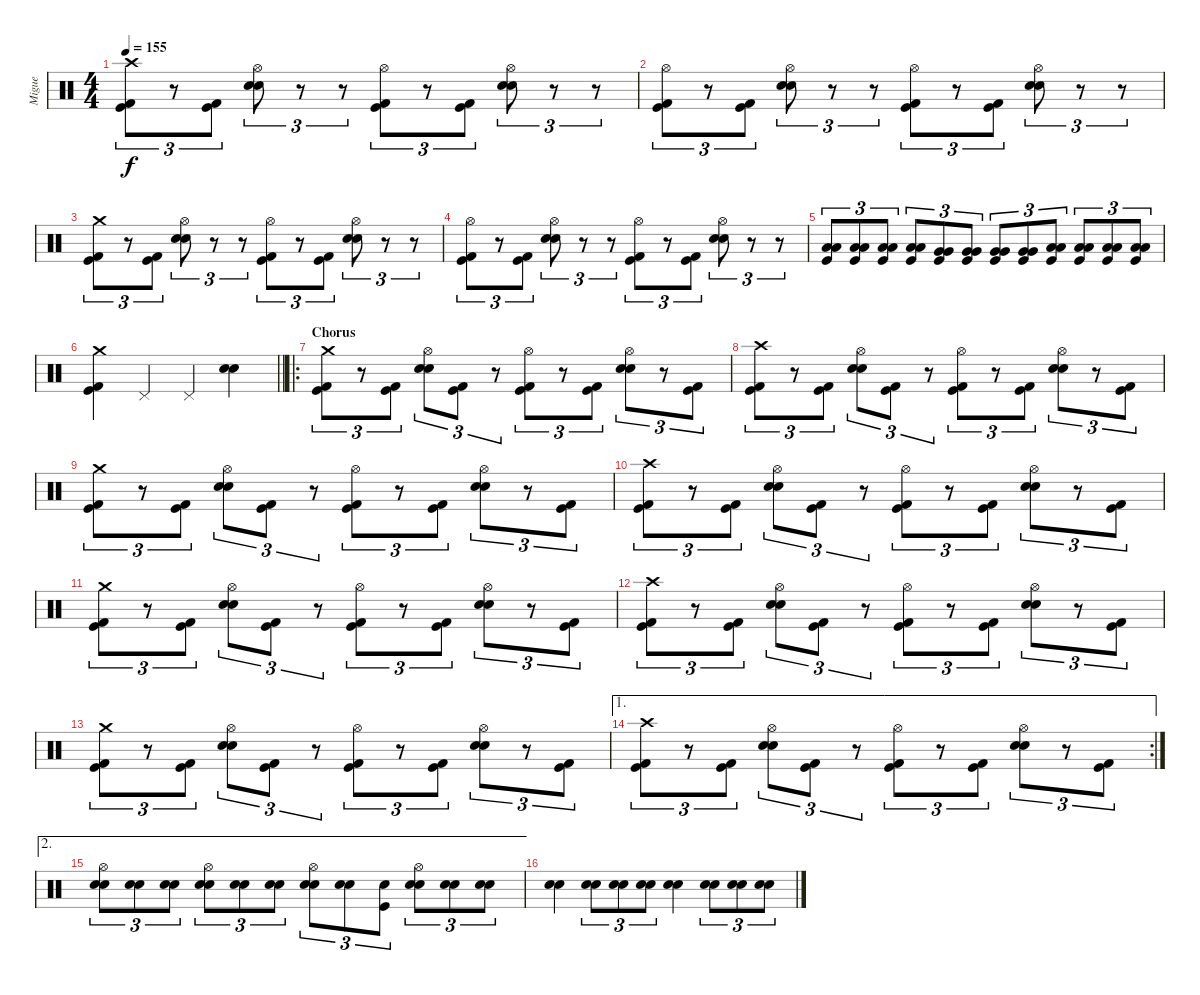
\track ("Migue" "Migue") {instrument percussion}
\staff {score}
\articulation defaults
\ts (4 4)
\tempo 155
\clef neutral
\ks c
("Crash high (hit)" "Kick (hit) 2" "Kick (hit)").8{tu (3 2) dy f} r.8{tu (3 2)} ("Kick (hit) 2" "Kick (hit)").8{tu (3 2)} ("Hi-Hat (open)" "Snare (hit) 2" "Snare (hit) 2").8{tu (3 2)} r.8{tu (3 2)} r.8{tu (3 2)} ("Hi-Hat (open)" "Kick (hit) 2" "Kick (hit)").8{tu (3 2)} r.8{tu (3 2)} ("Kick (hit) 2" "Kick (hit)").8{tu (3 2)} ("Hi-Hat (open)" "Snare (hit) 2" "Snare (hit) 2").8{tu (3 2)} r.8{tu (3 2)} r.8{tu (3 2)} |
("Hi-Hat (open)" "Kick (hit) 2" "Kick (hit)").8{tu (3 2)} r.8{tu (3 2)} ("Kick (hit) 2" "Kick (hit)").8{tu (3 2)} ("Hi-Hat (open)" "Snare (hit) 2" "Snare (hit) 2").8{tu (3 2)} r.8{tu (3 2)} r.8{tu (3 2)} ("Hi-Hat (open)" "Kick (hit) 2" "Kick (hit)").8{tu (3 2)} r.8{tu (3 2)} ("Kick (hit) 2" "Kick (hit)").8{tu (3 2)} ("Hi-Hat (open)" "Snare (hit) 2" "Snare (hit) 2").8{tu (3 2)} r.8{tu (3 2)} r.8{tu (3 2)} |
("Crash medium (hit)" "Kick (hit) 2" "Kick (hit)").8{tu (3 2)} r.8{tu (3 2)} ("Kick (hit) 2" "Kick (hit)").8{tu (3 2)} ("Hi-Hat (open)" "Snare (hit) 2" "Snare (hit) 2").8{tu (3 2)} r.8{tu (3 2)} r.8{tu (3 2)} ("Hi-Hat (open)" "Kick (hit) 2" "Kick (hit)").8{tu (3 2)} r.8{tu (3 2)} ("Kick (hit) 2" "Kick (hit)").8{tu (3 2)} ("Hi-Hat (open)" "Snare (hit) 2" "Snare (hit) 2").8{tu (3 2)} r.8{tu (3 2)} r.8{tu (3 2)} |
("Hi-Hat (open)" "Kick (hit) 2" "Kick (hit)").8{tu (3 2)} r.8{tu (3 2)} ("Kick (hit) 2" "Kick (hit)").8{tu (3 2)} ("Hi-Hat (open)" "Snare (hit) 2" "Snare (hit) 2").8{tu (3 2)} r.8{tu (3 2)} r.8{tu (3 2)} ("Hi-Hat (open)" "Kick (hit) 2" "Kick (hit)").8{tu (3 2)} r.8{tu (3 2)} ("Kick (hit) 2" "Kick (hit)").8{tu (3 2)} ("Hi-Hat (open)" "Snare (hit) 2" "Snare (hit) 2").8{tu (3 2)} r.8{tu (3 2)} r.8{tu (3 2)} |
("Low Tom (hit)" "Low Tom (hit)" "Kick (hit)").8{tu (3 2)} ("Low Tom (hit)" "Low Tom (hit)" "Kick (hit)").8{tu (3 2)} ("Low Tom (hit)" "Low Tom (hit)" "Kick (hit)").8{tu (3 2)} ("Low Tom (hit)" "Low Tom (hit)" "Kick (hit)").8{tu (3 2)} ("Very Low Tom (hit)" "Very Low Tom (hit)" "Kick (hit)").8{tu (3 2)} ("Very Low Tom (hit)" "Very Low Tom (hit)" "Kick (hit)").8{tu (3 2)} ("Very Low Tom (hit)" "Very Low Tom (hit)" "Kick (hit)").8{tu (3 2)} ("Very Low Tom (hit)" "Very Low Tom (hit)" "Kick (hit)").8{tu (3 2)} ("Low Floor Tom (hit)" "Low Floor Tom (hit)" "Kick (hit)").8{tu (3 2)} ("Low Floor Tom (hit)" "Low Floor Tom (hit)" "Kick (hit)").8{tu (3 2)} ("Low Floor Tom (hit)" "Low Floor Tom (hit)" "Kick (hit)").8{tu (3 2)} ("Low Floor Tom (hit)" "Low Floor Tom (hit)" "Kick (hit)").8{tu (3 2)} |
\barLineRight lightlight
("Crash medium (hit)" "Kick (hit) 2" "Kick (hit)").4 "Pedal Hi-Hat (hit)".4 "Pedal Hi-Hat (hit)".4 ("Snare (hit) 2" "Snare (hit) 2").4 |
\ro
\section ("" "Chorus")
("Crash medium (hit)" "Kick (hit) 2" "Kick (hit)").8{tu (3 2)} r.8{tu (3 2)} ("Kick (hit) 2" "Kick (hit)").8{tu (3 2)} ("Hi-Hat (open)" "Snare (hit) 2" "Snare (hit) 2").8{tu (3 2)} ("Kick (hit)" "Kick (hit) 2").8{tu (3 2)} r.8{tu (3 2)} ("Hi-Hat (open)" "Kick (hit) 2" "Kick (hit)").8{tu (3 2)} r.8{tu (3 2)} ("Kick (hit) 2" "Kick (hit)").8{tu (3 2)} ("Hi-Hat (open)" "Snare (hit) 2" "Snare (hit) 2").8{tu (3 2)} r.8{tu (3 2)} ("Kick (hit) 2" "Kick (hit)").8{tu (3 2)} |
("Crash high (hit)" "Kick (hit) 2" "Kick (hit)").8{tu (3 2)} r.8{tu (3 2)} ("Kick (hit) 2" "Kick (hit)").8{tu (3 2)} ("Hi-Hat (open)" "Snare (hit) 2" "Snare (hit) 2").8{tu (3 2)} ("Kick (hit) 2" "Kick (hit)").8{tu (3 2)} r.8{tu (3 2)} ("Hi-Hat (open)" "Kick (hit) 2" "Kick (hit)").8{tu (3 2)} r.8{tu (3 2)} ("Kick (hit) 2" "Kick (hit)").8{tu (3 2)} ("Hi-Hat (open)" "Snare (hit) 2" "Snare (hit) 2").8{tu (3 2)} r.8{tu (3 2)} ("Kick (hit) 2" "Kick (hit)").8{tu (3 2)} |
("Crash medium (hit)" "Kick (hit) 2" "Kick (hit)").8{tu (3 2)} r.8{tu (3 2)} ("Kick (hit) 2" "Kick (hit)").8{tu (3 2)} ("Hi-Hat (open)" "Snare (hit) 2" "Snare (hit) 2").8{tu (3 2)} ("Kick (hit) 2" "Kick (hit)").8{tu (3 2)} r.8{tu (3 2)} ("Hi-Hat (open)" "Kick (hit) 2" "Kick (hit)").8{tu (3 2)} r.8{tu (3 2)} ("Kick (hit) 2" "Kick (hit)").8{tu (3 2)} ("Hi-Hat (open)" "Snare (hit) 2" "Snare (hit) 2").8{tu (3 2)} r.8{tu (3 2)} ("Kick (hit) 2" "Kick (hit)").8{tu (3 2)} |
("Crash high (hit)" "Kick (hit) 2" "Kick (hit)").8{tu (3 2)} r.8{tu (3 2)} ("Kick (hit) 2" "Kick (hit)").8{tu (3 2)} ("Hi-Hat (open)" "Snare (hit) 2" "Snare (hit) 2").8{tu (3 2)} ("Kick (hit) 2" "Kick (hit)").8{tu (3 2)} r.8{tu (3 2)} ("Hi-Hat (open)" "Kick (hit) 2" "Kick (hit)").8{tu (3 2)} r.8{tu (3 2)} ("Kick (hit) 2" "Kick (hit)").8{tu (3 2)} ("Hi-Hat (open)" "Snare (hit) 2" "Snare (hit) 2").8{tu (3 2)} r.8{tu (3 2)} ("Kick (hit) 2" "Kick (hit)").8{tu (3 2)} |
("Crash medium (hit)" "Kick (hit) 2" "Kick (hit)").8{tu (3 2)} r.8{tu (3 2)} ("Kick (hit) 2" "Kick (hit)").8{tu (3 2)} ("Hi-Hat (open)" "Snare (hit) 2" "Snare (hit) 2").8{tu (3 2)} ("Kick (hit) 2" "Kick (hit)").8{tu (3 2)} r.8{tu (3 2)} ("Hi-Hat (open)" "Kick (hit) 2" "Kick (hit)").8{tu (3 2)} r.8{tu (3 2)} ("Kick (hit) 2" "Kick (hit)").8{tu (3 2)} ("Hi-Hat (open)" "Snare (hit) 2" "Snare (hit) 2").8{tu (3 2)} r.8{tu (3 2)} ("Kick (hit) 2" "Kick (hit)").8{tu (3 2)} |
("Crash high (hit)" "Kick (hit) 2" "Kick (hit)").8{tu (3 2)} r.8{tu (3 2)} ("Kick (hit) 2" "Kick (hit)").8{tu (3 2)} ("Hi-Hat (open)" "Snare (hit) 2" "Snare (hit) 2").8{tu (3 2)} ("Kick (hit) 2" "Kick (hit)").8{tu (3 2)} r.8{tu (3 2)} ("Hi-Hat (open)" "Kick (hit) 2" "Kick (hit)").8{tu (3 2)} r.8{tu (3 2)} ("Kick (hit) 2" "Kick (hit)").8{tu (3 2)} ("Hi-Hat (open)" "Snare (hit) 2" "Snare (hit) 2").8{tu (3 2)} r.8{tu (3 2)} ("Kick (hit) 2" "Kick (hit)").8{tu (3 2)} |
("Crash medium (hit)" "Kick (hit) 2" "Kick (hit)").8{tu (3 2)} r.8{tu (3 2)} ("Kick (hit) 2" "Kick (hit)").8{tu (3 2)} ("Hi-Hat (open)" "Snare (hit) 2" "Snare (hit) 2").8{tu (3 2)} ("Kick (hit) 2" "Kick (hit)").8{tu (3 2)} r.8{tu (3 2)} ("Hi-Hat (open)" "Kick (hit) 2" "Kick (hit)").8{tu (3 2)} r.8{tu (3 2)} ("Kick (hit) 2" "Kick (hit)").8{tu (3 2)} ("Hi-Hat (open)" "Snare (hit) 2" "Snare (hit) 2").8{tu (3 2)} r.8{tu (3 2)} ("Kick (hit) 2" "Kick (hit)").8{tu (3 2)} |
\ae 1
\rc 2
("Crash high (hit)" "Kick (hit) 2" "Kick (hit)").8{tu (3 2)} r.8{tu (3 2)} ("Kick (hit) 2" "Kick (hit)").8{tu (3 2)} ("Hi-Hat (open)" "Snare (hit) 2" "Snare (hit) 2").8{tu (3 2)} ("Kick (hit) 2" "Kick (hit)").8{tu (3 2)} r.8{tu (3 2)} ("Hi-Hat (open)" "Kick (hit) 2" "Kick (hit)").8{tu (3 2)} r.8{tu (3 2)} ("Kick (hit) 2" "Kick (hit)").8{tu (3 2)} ("Hi-Hat (open)" "Snare (hit) 2" "Snare (hit) 2").8{tu (3 2)} r.8{tu (3 2)} ("Kick (hit) 2" "Kick (hit)").8{tu (3 2)} |
\ae 2
("Hi-Hat (open)" "Snare (hit) 2" "Snare (hit) 2").8{tu (3 2)} ("Snare (hit) 2" "Snare (hit) 2").8{tu (3 2)} ("Snare (hit) 2" "Snare (hit) 2").8{tu (3 2)} ("Hi-Hat (open)" "Snare (hit) 2" "Snare (hit) 2").8{tu (3 2)} ("Snare (hit) 2" "Snare (hit) 2").8{tu (3 2)} ("Snare (hit) 2" "Snare (hit) 2").8{tu (3 2)} ("Hi-Hat (open)" "Snare (hit) 2" "Snare (hit) 2").8{tu (3 2)} ("Snare (hit) 2" "Snare (hit) 2").8{tu (3 2)} ("Snare (hit) 2" "Kick (hit)").8{tu (3 2)} ("Hi-Hat (open)" "Snare (hit) 2" "Snare (hit) 2").8{tu (3 2)} ("Snare (hit) 2" "Snare (hit) 2").8{tu (3 2)} ("Snare (hit) 2" "Snare (hit) 2").8{tu (3 2)} |
("Snare (hit) 2" "Snare (hit) 2").4 ("Snare (hit) 2" "Snare (hit) 2").8{tu (3 2)} ("Snare (hit) 2" "Snare (hit) 2").8{tu (3 2)} ("Snare (hit) 2" "Snare (hit) 2").8{tu (3 2)} ("Snare (hit) 2" "Snare (hit) 2").4 ("Snare (hit) 2" "Snare (hit) 2").8{tu (3 2)} ("Snare (hit) 2" "Snare (hit) 2").8{tu (3 2)} ("Snare (hit) 2" "Snare (hit) 2").8{tu (3 2)}
